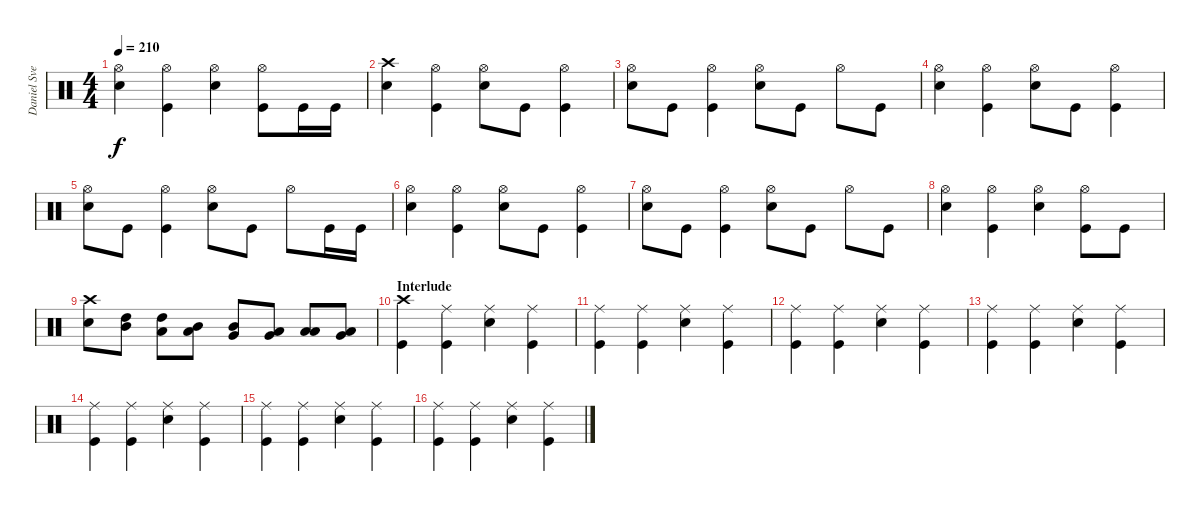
\track ("Daniel Svensson" "Daniel Sve") {instrument percussion}
\staff {score}
\articulation defaults
\ts (4 4)
\tempo 210
\clef neutral
\ks c
("Hi-Hat (open)" "Electric Snare (hit)").4{dy f} ("Hi-Hat (open)" "Kick (hit)").4 ("Hi-Hat (open)" "Electric Snare (hit)").4 ("Hi-Hat (open)" "Kick (hit)").8 "Kick (hit)".16 "Kick (hit)".16 |
("Crash high (hit)" "Electric Snare (hit)").4 ("Hi-Hat (open)" "Kick (hit)").4 ("Hi-Hat (open)" "Electric Snare (hit)").8 "Kick (hit)".8 ("Hi-Hat (open)" "Kick (hit)").4 |
("Hi-Hat (open)" "Electric Snare (hit)").8 "Kick (hit)".8 ("Hi-Hat (open)" "Kick (hit)").4 ("Hi-Hat (open)" "Electric Snare (hit)").8 "Kick (hit)".8 "Hi-Hat (open)".8 "Kick (hit)".8 |
("Hi-Hat (open)" "Electric Snare (hit)").4 ("Hi-Hat (open)" "Kick (hit)").4 ("Hi-Hat (open)" "Electric Snare (hit)").8 "Kick (hit)".8 ("Hi-Hat (open)" "Kick (hit)").4 |
("Hi-Hat (open)" "Electric Snare (hit)").8 "Kick (hit)".8 ("Hi-Hat (open)" "Kick (hit)").4 ("Hi-Hat (open)" "Electric Snare (hit)").8 "Kick (hit)".8 "Hi-Hat (open)".8 "Kick (hit)".16 "Kick (hit)".16 |
("Hi-Hat (open)" "Electric Snare (hit)").4 ("Hi-Hat (open)" "Kick (hit)").4 ("Hi-Hat (open)" "Electric Snare (hit)").8 "Kick (hit)".8 ("Hi-Hat (open)" "Kick (hit)").4 |
("Hi-Hat (open)" "Electric Snare (hit)").8 "Kick (hit)".8 ("Hi-Hat (open)" "Kick (hit)").4 ("Hi-Hat (open)" "Electric Snare (hit)").8 "Kick (hit)".8 "Hi-Hat (open)".8 "Kick (hit)".8 |
("Hi-Hat (open)" "Electric Snare (hit)").4 ("Hi-Hat (open)" "Kick (hit)").4 ("Hi-Hat (open)" "Electric Snare (hit)").4 ("Hi-Hat (open)" "Kick (hit)").8 "Kick (hit)".8 |
("Crash high (hit)" "Electric Snare (hit)").8 ("Mid Tom (hit)" "High Tom (hit)").8 ("Low Tom (hit)" "High Tom (hit)").8 ("Low Tom (hit)" "Mid Tom (hit)").8 ("Very Low Tom (hit)" "Mid Tom (hit)").8 ("Very Low Tom (hit)" "Low Tom (hit)").8 ("Low Floor Tom (hit)" "Low Tom (hit)").8 ("Low Floor Tom (hit)" "Very Low Tom (hit)").8 |
\section ("" "Interlude")
("Crash high (hit)" "Kick (hit)").4 ("Ride (middle)" "Kick (hit)").4 ("Ride (middle)" "Electric Snare (hit)").4 ("Ride (middle)" "Kick (hit)").4 |
("Ride (middle)" "Kick (hit)").4 ("Ride (middle)" "Kick (hit)").4 ("Ride (middle)" "Electric Snare (hit)").4 ("Ride (middle)" "Kick (hit)").4 |
("Ride (middle)" "Kick (hit)").4 ("Ride (middle)" "Kick (hit)").4 ("Ride (middle)" "Electric Snare (hit)").4 ("Ride (middle)" "Kick (hit)").4 |
("Ride (middle)" "Kick (hit)").4 ("Ride (middle)" "Kick (hit)").4 ("Ride (middle)" "Electric Snare (hit)").4 ("Ride (middle)" "Kick (hit)").4 |
("Ride (middle)" "Kick (hit)").4 ("Ride (middle)" "Kick (hit)").4 ("Ride (middle)" "Electric Snare (hit)").4 ("Ride (middle)" "Kick (hit)").4 |
("Ride (middle)" "Kick (hit)").4 ("Ride (middle)" "Kick (hit)").4 ("Ride (middle)" "Electric Snare (hit)").4 ("Ride (middle)" "Kick (hit)").4 |
("Ride (middle)" "Kick (hit)").4 ("Ride (middle)" "Kick (hit)").4 ("Ride (middle)" "Electric Snare (hit)").4 ("Ride (middle)" "Kick (hit)").4
